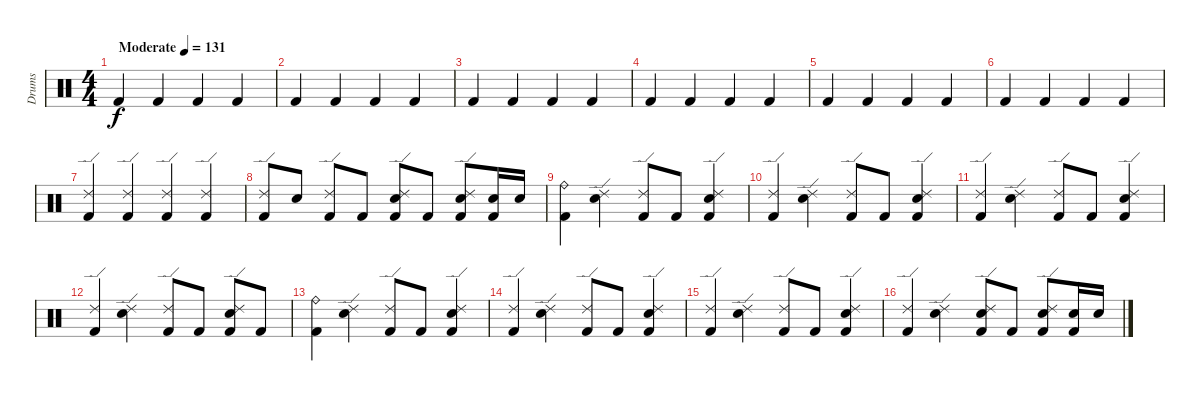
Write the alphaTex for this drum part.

\track ("Drums" "Drums") {instrument percussion}
\staff {score}
\articulation defaults
\ts (4 4)
\tempo (131 "Moderate")
\clef neutral
\ks c "Kick (hit) 2".4{dy f} "Kick (hit) 2".4 "Kick (hit) 2".4 "Kick (hit) 2".4
|
"Kick (hit) 2".4 "Kick (hit) 2".4 "Kick (hit) 2".4 "Kick (hit) 2".4 |
"Kick (hit) 2".4 "Kick (hit) 2".4 "Kick (hit) 2".4 "Kick (hit) 2".4 |
"Kick (hit) 2".4 "Kick (hit) 2".4 "Kick (hit) 2".4 "Kick (hit) 2".4 |
"Kick (hit) 2".4 "Kick (hit) 2".4 "Kick (hit) 2".4 "Kick (hit) 2".4 |
"Kick (hit) 2".4 "Kick (hit) 2".4 "Kick (hit) 2".4 "Kick (hit) 2".4 |
("Ride (edge) 2" "Kick (hit) 2").4 ("Ride (edge) 2" "Kick (hit) 2").4 ("Ride (edge) 2" "Kick (hit) 2").4 ("Ride (edge) 2" "Kick (hit) 2").4 |
("Ride (edge) 2" "Kick (hit) 2").8 "Snare (hit) 2".8 ("Ride (edge) 2" "Kick (hit) 2").8 "Kick (hit) 2".8 ("Ride (edge) 2" "Snare (hit) 2" "Kick (hit) 2").8 "Kick (hit) 2".8 ("Ride (edge) 2" "Snare (hit) 2" "Kick (hit) 2").8 ("Snare (hit) 2" "Kick (hit) 2").16 "Snare (hit) 2".16 |
("Ride (bell)" "Kick (hit) 2").4 ("Ride (edge) 2" "Snare (hit) 2").4 ("Ride (edge) 2" "Kick (hit) 2").8 "Kick (hit) 2".8 ("Ride (edge) 2" "Snare (hit) 2" "Kick (hit) 2").4 |
("Ride (edge) 2" "Kick (hit) 2").4 ("Ride (edge) 2" "Snare (hit) 2").4 ("Ride (edge) 2" "Kick (hit) 2").8 "Kick (hit) 2".8 ("Ride (edge) 2" "Snare (hit) 2" "Kick (hit) 2").4 |
("Ride (edge) 2" "Kick (hit) 2").4 ("Ride (edge) 2" "Snare (hit) 2").4 ("Ride (edge) 2" "Kick (hit) 2").8 "Kick (hit) 2".8 ("Ride (edge) 2" "Snare (hit) 2" "Kick (hit) 2").4 |
("Ride (edge) 2" "Kick (hit) 2").4 ("Ride (edge) 2" "Snare (hit) 2").4 ("Ride (edge) 2" "Kick (hit) 2").8 "Kick (hit) 2".8 ("Ride (edge) 2" "Snare (hit) 2" "Kick (hit) 2").8 "Kick (hit) 2".8 |
("Ride (bell)" "Kick (hit) 2").4 ("Ride (edge) 2" "Snare (hit) 2").4 ("Ride (edge) 2" "Kick (hit) 2").8 "Kick (hit) 2".8 ("Ride (edge) 2" "Snare (hit) 2" "Kick (hit) 2").4 |
("Ride (edge) 2" "Kick (hit) 2").4 ("Ride (edge) 2" "Snare (hit) 2").4 ("Ride (edge) 2" "Kick (hit) 2").8 "Kick (hit) 2".8 ("Ride (edge) 2" "Snare (hit) 2" "Kick (hit) 2").4 |
("Ride (edge) 2" "Kick (hit) 2").4 ("Ride (edge) 2" "Snare (hit) 2").4 ("Ride (edge) 2" "Kick (hit) 2").8 "Kick (hit) 2".8 ("Ride (edge) 2" "Snare (hit) 2" "Kick (hit) 2").4 |
("Ride (edge) 2" "Kick (hit) 2").4 ("Ride (edge) 2" "Snare (hit) 2").4 ("Ride (edge) 2" "Snare (hit) 2" "Kick (hit) 2").8 "Kick (hit) 2".8 ("Ride (edge) 2" "Snare (hit) 2" "Kick (hit) 2").8 ("Snare (hit) 2" "Kick (hit) 2").16 "Snare (hit) 2".16
